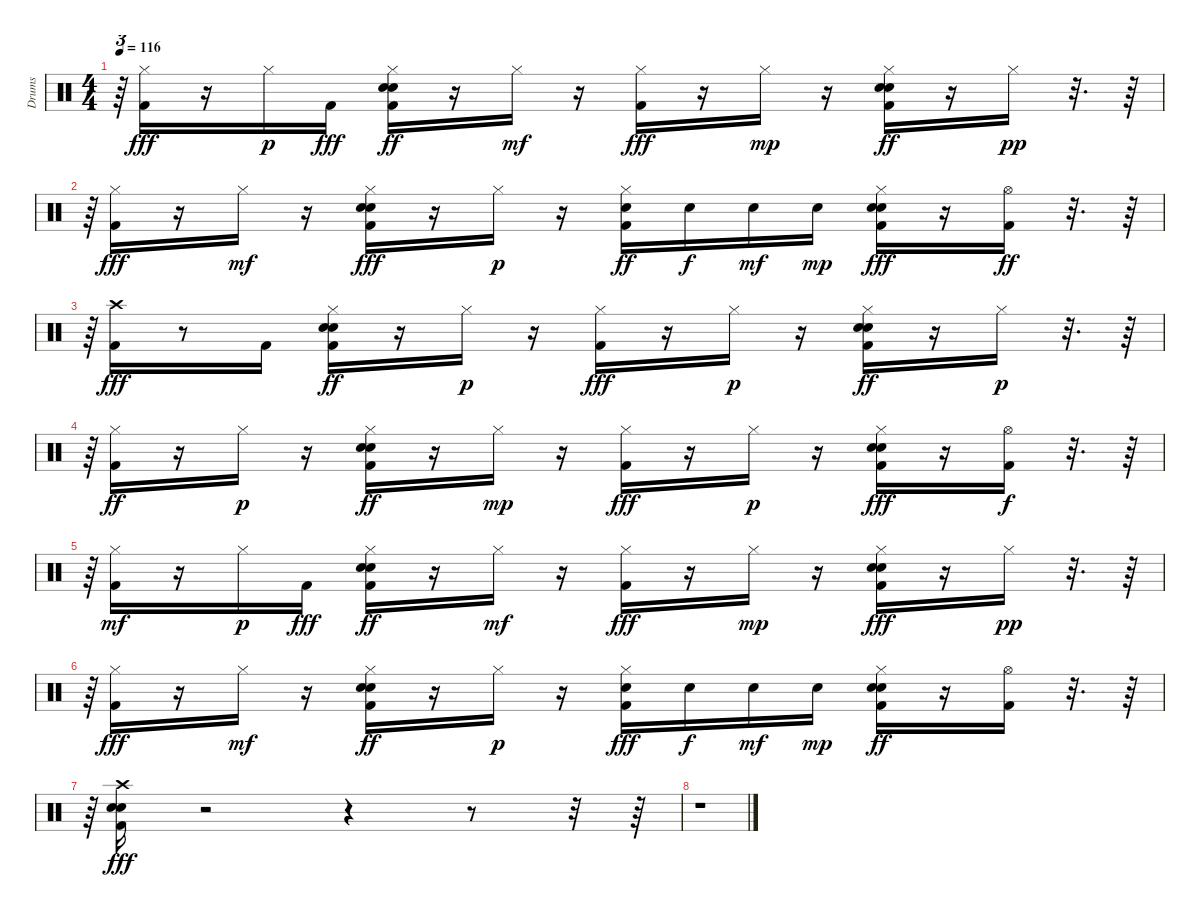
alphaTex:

\track ("Drums" "Drums") {instrument percussion}
\staff {score}
\articulation defaults
\ts (4 4)
\tempo 116
\clef neutral
\ks c
r.64{tu (3 2) dy f} ("Hi-Hat (closed)" "Kick (hit) 2").16{dy fff} r.16 "Hi-Hat (closed)".16{dy p} "Kick (hit) 2".16{dy fff} ("Kick (hit) 2" "Hand Clap (hit)" "Snare (hit) 2" "Hi-Hat (closed)").16{dy ff} r.16 "Hi-Hat (closed)".16{dy mf} r.16 ("Hi-Hat (closed)" "Kick (hit) 2").16{dy fff} r.16 "Hi-Hat (closed)".16{dy mp} r.16 ("Kick (hit) 2" "Snare (hit) 2" "Hi-Hat (closed)" "Hand Clap (hit)").16{dy ff} r.16 "Hi-Hat (closed)".16{dy pp} r.32{d} r.64 |
r.64{tu (3 2)} ("Hi-Hat (closed)" "Kick (hit) 2").16{dy fff} r.16 "Hi-Hat (closed)".16{dy mf} r.16 ("Snare (hit) 2" "Hand Clap (hit)" "Hi-Hat (closed)" "Kick (hit) 2").16{dy fff} r.16 "Hi-Hat (closed)".16{dy p} r.16 ("Snare (hit) 2" "Kick (hit) 2" "Hi-Hat (closed)").16{dy ff} "Snare (hit) 2".16{dy f} "Snare (hit) 2".16{dy mf} "Snare (hit) 2".16{dy mp} ("Kick (hit) 2" "Hand Clap (hit)" "Snare (hit) 2" "Hi-Hat (closed)").16{dy fff} r.16 ("Hi-Hat (open)" "Kick (hit) 2").16{dy ff} r.32{d} r.64 |
r.64{tu (3 2)} ("Crash high (hit)" "Kick (hit) 2").16{dy fff} r.8 "Kick (hit) 2".16 ("Hi-Hat (closed)" "Hand Clap (hit)" "Kick (hit) 2" "Snare (hit) 2").16{dy ff} r.16 "Hi-Hat (closed)".16{dy p} r.16 ("Kick (hit) 2" "Hi-Hat (closed)").16{dy fff} r.16 "Hi-Hat (closed)".16{dy p} r.16 ("Snare (hit) 2" "Kick (hit) 2" "Hand Clap (hit)" "Hi-Hat (closed)").16{dy ff} r.16 "Hi-Hat (closed)".16{dy p} r.32{d} r.64 |
r.64{tu (3 2)} ("Kick (hit) 2" "Hi-Hat (closed)").16{dy ff} r.16 "Hi-Hat (closed)".16{dy p} r.16 ("Snare (hit) 2" "Kick (hit) 2" "Hi-Hat (closed)" "Hand Clap (hit)").16{dy ff} r.16 "Hi-Hat (closed)".16{dy mp} r.16 ("Hi-Hat (closed)" "Kick (hit) 2").16{dy fff} r.16 "Hi-Hat (closed)".16{dy p} r.16 ("Snare (hit) 2" "Hi-Hat (closed)" "Hand Clap (hit)" "Kick (hit) 2").16{dy fff} r.16 ("Hi-Hat (open)" "Kick (hit) 2").16{dy f} r.32{d} r.64 |
r.64{tu (3 2)} ("Kick (hit) 2" "Hi-Hat (closed)").16{dy mf} r.16 "Hi-Hat (closed)".16{dy p} "Kick (hit) 2".16{dy fff} ("Kick (hit) 2" "Snare (hit) 2" "Hand Clap (hit)" "Hi-Hat (closed)").16{dy ff} r.16 "Hi-Hat (closed)".16{dy mf} r.16 ("Kick (hit) 2" "Hi-Hat (closed)").16{dy fff} r.16 "Hi-Hat (closed)".16{dy mp} r.16 ("Snare (hit) 2" "Hi-Hat (closed)" "Hand Clap (hit)" "Kick (hit) 2").16{dy fff} r.16 "Hi-Hat (closed)".16{dy pp} r.32{d} r.64 |
r.64{tu (3 2)} ("Hi-Hat (closed)" "Kick (hit) 2").16{dy fff} r.16 "Hi-Hat (closed)".16{dy mf} r.16 ("Hi-Hat (closed)" "Snare (hit) 2" "Kick (hit) 2" "Hand Clap (hit)").16{dy ff} r.16 "Hi-Hat (closed)".16{dy p} r.16 ("Hi-Hat (closed)" "Kick (hit) 2" "Snare (hit) 2").16{dy fff} "Snare (hit) 2".16{dy f} "Snare (hit) 2".16{dy mf} "Snare (hit) 2".16{dy mp} ("Snare (hit) 2" "Kick (hit) 2" "Hand Clap (hit)" "Hi-Hat (closed)").16{dy ff} r.16 ("Kick (hit) 2" "Hi-Hat (open)").16 r.32{d} r.64 |
r.64{tu (3 2)} ("Snare (hit) 2" "Crash high (hit)" "Kick (hit) 2" "Hand Clap (hit)").16{dy fff} r.2 r.4 r.8 r.32 r.64 |
r.1
